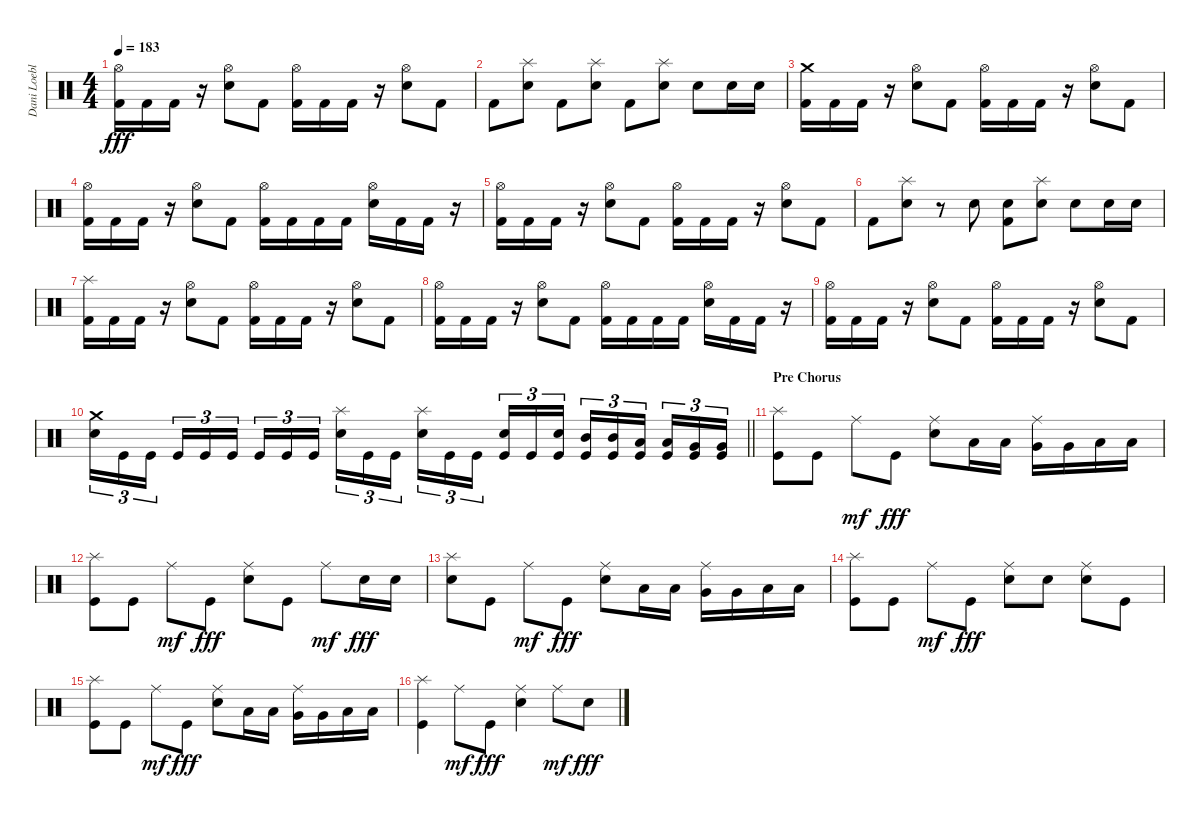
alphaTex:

\track ("Dani Loeble" "Dani Loebl") {instrument percussion}
\staff {score}
\articulation defaults
\ts (4 4)
\tempo 183
\clef neutral
\ks c
("Hi-Hat (open)" "Kick (hit) 2").16{dy fff} "Kick (hit) 2".16 "Kick (hit) 2".16 r.16 ("Hi-Hat (open)" "Electric Snare (hit)").8 "Kick (hit) 2".8 ("Hi-Hat (open)" "Kick (hit) 2").16 "Kick (hit) 2".16 "Kick (hit) 2".16 r.16 ("Hi-Hat (open)" "Electric Snare (hit)").8 "Kick (hit) 2".8 |
"Kick (hit) 2".8 ("Splash (hit)" "Electric Snare (hit)").8 "Kick (hit) 2".8 ("Splash (hit)" "Electric Snare (hit)").8 "Kick (hit) 2".8 ("Splash (hit)" "Electric Snare (hit)").8 "Electric Snare (hit)".8 "Electric Snare (hit)".16 "Electric Snare (hit)".16 |
("Crash medium (hit)" "Kick (hit) 2").16 "Kick (hit) 2".16 "Kick (hit) 2".16 r.16 ("Hi-Hat (open)" "Electric Snare (hit)").8 "Kick (hit) 2".8 ("Hi-Hat (open)" "Kick (hit) 2").16 "Kick (hit) 2".16 "Kick (hit) 2".16 r.16 ("Hi-Hat (open)" "Electric Snare (hit)").8 "Kick (hit) 2".8 |
("Hi-Hat (open)" "Kick (hit) 2").16 "Kick (hit) 2".16 "Kick (hit) 2".16 r.16 ("Hi-Hat (open)" "Electric Snare (hit)").8 "Kick (hit) 2".8 ("Hi-Hat (open)" "Kick (hit) 2").16 "Kick (hit) 2".16 "Kick (hit) 2".16 "Kick (hit) 2".16 ("Hi-Hat (open)" "Electric Snare (hit)").16 "Kick (hit) 2".16 "Kick (hit) 2".16 r.16 |
("Hi-Hat (open)" "Kick (hit) 2").16 "Kick (hit) 2".16 "Kick (hit) 2".16 r.16 ("Hi-Hat (open)" "Electric Snare (hit)").8 "Kick (hit) 2".8 ("Hi-Hat (open)" "Kick (hit) 2").16 "Kick (hit) 2".16 "Kick (hit) 2".16 r.16 ("Hi-Hat (open)" "Electric Snare (hit)").8 "Kick (hit) 2".8 |
"Kick (hit) 2".8 ("Splash (hit)" "Electric Snare (hit)").8 r.8 "Electric Snare (hit)".8 ("Electric Snare (hit)" "Kick (hit) 2").8 ("Splash (hit)" "Electric Snare (hit)").8 "Electric Snare (hit)".8 "Electric Snare (hit)".16 "Electric Snare (hit)".16 |
("Splash (hit)" "Kick (hit) 2").16 "Kick (hit) 2".16 "Kick (hit) 2".16 r.16 ("Hi-Hat (open)" "Electric Snare (hit)").8 "Kick (hit) 2".8 ("Hi-Hat (open)" "Kick (hit) 2").16 "Kick (hit) 2".16 "Kick (hit) 2".16 r.16 ("Hi-Hat (open)" "Electric Snare (hit)").8 "Kick (hit) 2".8 |
("Hi-Hat (open)" "Kick (hit) 2").16 "Kick (hit) 2".16 "Kick (hit) 2".16 r.16 ("Hi-Hat (open)" "Electric Snare (hit)").8 "Kick (hit) 2".8 ("Hi-Hat (open)" "Kick (hit) 2").16 "Kick (hit) 2".16 "Kick (hit) 2".16 "Kick (hit) 2".16 ("Hi-Hat (open)" "Electric Snare (hit)").16 "Kick (hit) 2".16 "Kick (hit) 2".16 r.16 |
("Hi-Hat (open)" "Kick (hit) 2").16 "Kick (hit) 2".16 "Kick (hit) 2".16 r.16 ("Hi-Hat (open)" "Electric Snare (hit)").8 "Kick (hit) 2".8 ("Hi-Hat (open)" "Kick (hit) 2").16 "Kick (hit) 2".16 "Kick (hit) 2".16 r.16 ("Hi-Hat (open)" "Electric Snare (hit)").8 "Kick (hit) 2".8 |
\barLineRight lightlight
("Crash medium (hit)" "Electric Snare (hit)").16{tu (3 2)} "Kick (hit)".16{tu (3 2)} "Kick (hit)".16{tu (3 2) beam splitsecondary} "Kick (hit)".16{tu (3 2)} "Kick (hit)".16{tu (3 2)} "Kick (hit)".16{tu (3 2)} "Kick (hit)".16{tu (3 2)} "Kick (hit)".16{tu (3 2)} "Kick (hit)".16{tu (3 2) beam splitsecondary} ("Splash (hit)" "Electric Snare (hit)").16{tu (3 2)} "Kick (hit)".16{tu (3 2)} "Kick (hit)".16{tu (3 2)} ("Splash (hit)" "Electric Snare (hit)").16{tu (3 2)} "Kick (hit)".16{tu (3 2)} "Kick (hit)".16{tu (3 2) beam splitsecondary} ("Electric Snare (hit)" "Kick (hit)").16{tu (3 2)} "Kick (hit)".16{tu (3 2)} ("Electric Snare (hit)" "Kick (hit)").16{tu (3 2)} ("Mid Tom (hit)" "Kick (hit)").16{tu (3 2)} ("Mid Tom (hit)" "Kick (hit)").16{tu (3 2)} ("Low Tom (hit)" "Kick (hit)").16{tu (3 2) beam splitsecondary} ("Low Tom (hit)" "Kick (hit)").16{tu (3 2)} ("Very Low Tom (hit)" "Kick (hit)").16{tu (3 2)} ("Very Low Tom (hit)" "Kick (hit)").16{tu (3 2)} |
\section ("" "Pre Chorus")
("Splash (hit)" "Kick (hit)").8 "Kick (hit)".8 "Ride (middle)".8{dy mf} "Kick (hit)".8{dy fff} ("Ride (middle)" "Electric Snare (hit)").8 "Low Tom (hit)".16 "Low Tom (hit)".16 ("Ride (middle)" "Very Low Tom (hit)").16 "Very Low Tom (hit)".16 "Low Floor Tom (hit)".16 "Low Floor Tom (hit)".16 |
("Splash (hit)" "Kick (hit)").8 "Kick (hit)".8 "Ride (middle)".8{dy mf} "Kick (hit)".8{dy fff} ("Ride (middle)" "Electric Snare (hit)").8 "Kick (hit)".8 "Ride (middle)".8{dy mf} "Electric Snare (hit)".16{dy fff} "Electric Snare (hit)".16 |
("Splash (hit)" "Electric Snare (hit)").8 "Kick (hit)".8 "Ride (middle)".8{dy mf} "Kick (hit)".8{dy fff} ("Ride (middle)" "Electric Snare (hit)").8 "Low Tom (hit)".16 "Low Tom (hit)".16 ("Ride (middle)" "Very Low Tom (hit)").16 "Very Low Tom (hit)".16 "Low Floor Tom (hit)".16 "Low Floor Tom (hit)".16 |
("Splash (hit)" "Kick (hit)").8 "Kick (hit)".8 "Ride (middle)".8{dy mf} "Kick (hit)".8{dy fff} ("Ride (middle)" "Electric Snare (hit)").8 "Electric Snare (hit)".8 ("Ride (middle)" "Electric Snare (hit)").8 "Kick (hit)".8 |
("Splash (hit)" "Kick (hit)").8 "Kick (hit)".8 "Ride (middle)".8{dy mf} "Kick (hit)".8{dy fff} ("Ride (middle)" "Electric Snare (hit)").8 "Low Tom (hit)".16 "Low Tom (hit)".16 ("Ride (middle)" "Very Low Tom (hit)").16 "Very Low Tom (hit)".16 "Low Floor Tom (hit)".16 "Low Floor Tom (hit)".16 |
("Splash (hit)" "Kick (hit)").4 "Ride (middle)".8{dy mf} "Kick (hit)".8{dy fff} ("Ride (middle)" "Electric Snare (hit)").4 "Ride (middle)".8{dy mf} "Electric Snare (hit)".8{dy fff}
